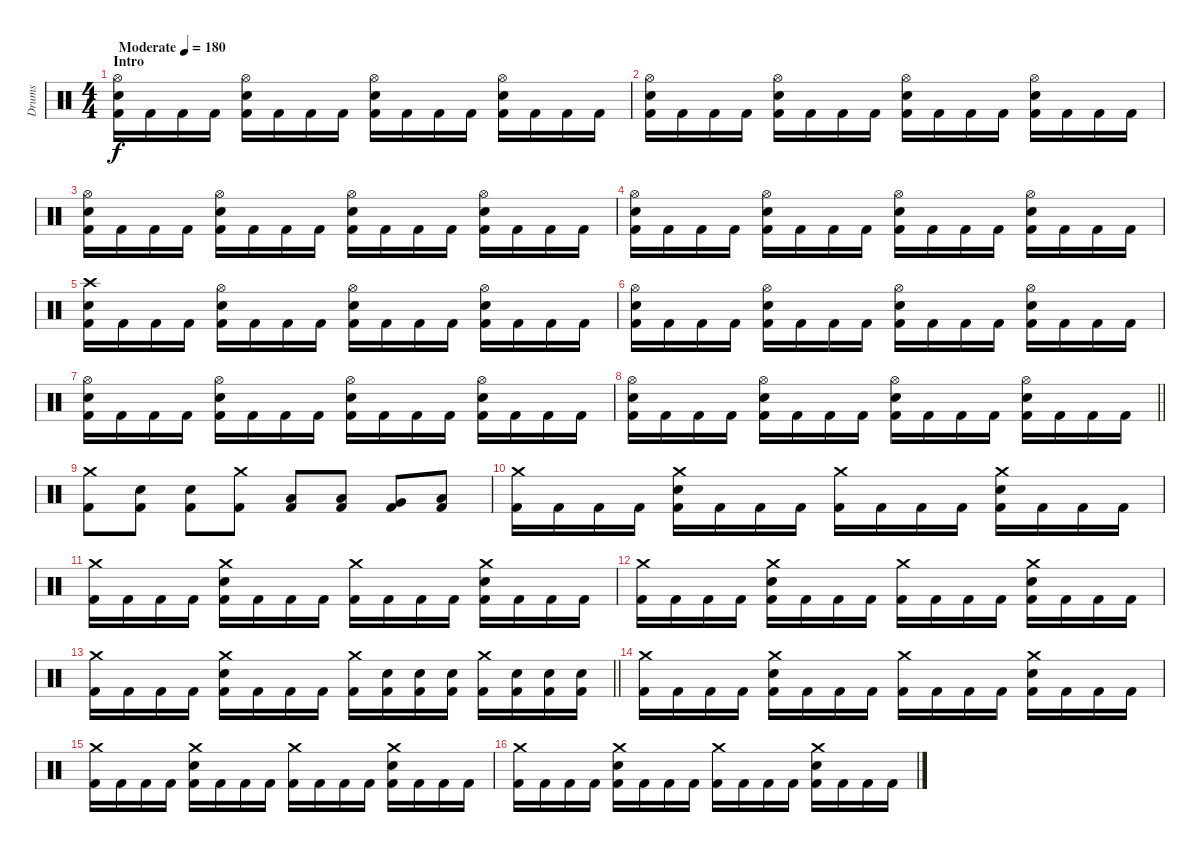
\track ("Drums" "Drums") {instrument percussion}
\staff {score}
\articulation defaults
\ts (4 4)
\section ("" "Intro")
\tempo (180 "Moderate")
\clef neutral
\ks c
("Hi-Hat (open)" "Snare (hit) 2" "Kick (hit) 2").16{dy f} "Kick (hit) 2".16 "Kick (hit) 2".16 "Kick (hit) 2".16 ("Hi-Hat (open)" "Snare (hit) 2" "Kick (hit) 2").16 "Kick (hit) 2".16 "Kick (hit) 2".16 "Kick (hit) 2".16 ("Hi-Hat (open)" "Snare (hit) 2" "Kick (hit) 2").16 "Kick (hit) 2".16 "Kick (hit) 2".16 "Kick (hit) 2".16 ("Hi-Hat (open)" "Snare (hit) 2" "Kick (hit) 2").16 "Kick (hit) 2".16 "Kick (hit) 2".16 "Kick (hit) 2".16 |
("Hi-Hat (open)" "Snare (hit) 2" "Kick (hit) 2").16 "Kick (hit) 2".16 "Kick (hit) 2".16 "Kick (hit) 2".16 ("Hi-Hat (open)" "Snare (hit) 2" "Kick (hit) 2").16 "Kick (hit) 2".16 "Kick (hit) 2".16 "Kick (hit) 2".16 ("Hi-Hat (open)" "Snare (hit) 2" "Kick (hit) 2").16 "Kick (hit) 2".16 "Kick (hit) 2".16 "Kick (hit) 2".16 ("Hi-Hat (open)" "Snare (hit) 2" "Kick (hit) 2").16 "Kick (hit) 2".16 "Kick (hit) 2".16 "Kick (hit) 2".16 |
("Hi-Hat (open)" "Snare (hit) 2" "Kick (hit) 2").16 "Kick (hit) 2".16 "Kick (hit) 2".16 "Kick (hit) 2".16 ("Hi-Hat (open)" "Snare (hit) 2" "Kick (hit) 2").16 "Kick (hit) 2".16 "Kick (hit) 2".16 "Kick (hit) 2".16 ("Hi-Hat (open)" "Snare (hit) 2" "Kick (hit) 2").16 "Kick (hit) 2".16 "Kick (hit) 2".16 "Kick (hit) 2".16 ("Hi-Hat (open)" "Snare (hit) 2" "Kick (hit) 2").16 "Kick (hit) 2".16 "Kick (hit) 2".16 "Kick (hit) 2".16 |
("Hi-Hat (open)" "Snare (hit) 2" "Kick (hit) 2").16 "Kick (hit) 2".16 "Kick (hit) 2".16 "Kick (hit) 2".16 ("Hi-Hat (open)" "Snare (hit) 2" "Kick (hit) 2").16 "Kick (hit) 2".16 "Kick (hit) 2".16 "Kick (hit) 2".16 ("Hi-Hat (open)" "Snare (hit) 2" "Kick (hit) 2").16 "Kick (hit) 2".16 "Kick (hit) 2".16 "Kick (hit) 2".16 ("Hi-Hat (open)" "Snare (hit) 2" "Kick (hit) 2").16 "Kick (hit) 2".16 "Kick (hit) 2".16 "Kick (hit) 2".16 |
("Crash high (hit)" "Snare (hit) 2" "Kick (hit) 2").16 "Kick (hit) 2".16 "Kick (hit) 2".16 "Kick (hit) 2".16 ("Hi-Hat (open)" "Snare (hit) 2" "Kick (hit) 2").16 "Kick (hit) 2".16 "Kick (hit) 2".16 "Kick (hit) 2".16 ("Hi-Hat (open)" "Snare (hit) 2" "Kick (hit) 2").16 "Kick (hit) 2".16 "Kick (hit) 2".16 "Kick (hit) 2".16 ("Hi-Hat (open)" "Snare (hit) 2" "Kick (hit) 2").16 "Kick (hit) 2".16 "Kick (hit) 2".16 "Kick (hit) 2".16 |
("Hi-Hat (open)" "Snare (hit) 2" "Kick (hit) 2").16 "Kick (hit) 2".16 "Kick (hit) 2".16 "Kick (hit) 2".16 ("Hi-Hat (open)" "Snare (hit) 2" "Kick (hit) 2").16 "Kick (hit) 2".16 "Kick (hit) 2".16 "Kick (hit) 2".16 ("Hi-Hat (open)" "Snare (hit) 2" "Kick (hit) 2").16 "Kick (hit) 2".16 "Kick (hit) 2".16 "Kick (hit) 2".16 ("Hi-Hat (open)" "Snare (hit) 2" "Kick (hit) 2").16 "Kick (hit) 2".16 "Kick (hit) 2".16 "Kick (hit) 2".16 |
("Hi-Hat (open)" "Snare (hit) 2" "Kick (hit) 2").16 "Kick (hit) 2".16 "Kick (hit) 2".16 "Kick (hit) 2".16 ("Hi-Hat (open)" "Snare (hit) 2" "Kick (hit) 2").16 "Kick (hit) 2".16 "Kick (hit) 2".16 "Kick (hit) 2".16 ("Hi-Hat (open)" "Snare (hit) 2" "Kick (hit) 2").16 "Kick (hit) 2".16 "Kick (hit) 2".16 "Kick (hit) 2".16 ("Hi-Hat (open)" "Snare (hit) 2" "Kick (hit) 2").16 "Kick (hit) 2".16 "Kick (hit) 2".16 "Kick (hit) 2".16 |
\barLineRight lightlight
("Hi-Hat (open)" "Snare (hit) 2" "Kick (hit) 2").16 "Kick (hit) 2".16 "Kick (hit) 2".16 "Kick (hit) 2".16 ("Hi-Hat (open)" "Snare (hit) 2" "Kick (hit) 2").16 "Kick (hit) 2".16 "Kick (hit) 2".16 "Kick (hit) 2".16 ("Hi-Hat (open)" "Snare (hit) 2" "Kick (hit) 2").16 "Kick (hit) 2".16 "Kick (hit) 2".16 "Kick (hit) 2".16 ("Hi-Hat (open)" "Snare (hit) 2" "Kick (hit) 2").16 "Kick (hit) 2".16 "Kick (hit) 2".16 "Kick (hit) 2".16 |
("Crash medium (hit)" "Kick (hit) 2").8 ("Snare (hit) 2" "Kick (hit) 2").8 ("Snare (hit) 2" "Kick (hit) 2").8 ("Crash medium (hit)" "Kick (hit) 2").8 ("Low Tom (hit)" "Kick (hit) 2").8 ("Low Tom (hit)" "Kick (hit) 2").8 ("Very Low Tom (hit)" "Kick (hit) 2").8 ("Low Floor Tom (hit)" "Kick (hit) 2").8 |
("Crash medium (hit)" "Kick (hit) 2").16 "Kick (hit) 2".16 "Kick (hit) 2".16 "Kick (hit) 2".16 ("Crash medium (hit)" "Snare (hit) 2" "Kick (hit) 2").16 "Kick (hit) 2".16 "Kick (hit) 2".16 "Kick (hit) 2".16 ("Crash medium (hit)" "Kick (hit) 2").16 "Kick (hit) 2".16 "Kick (hit) 2".16 "Kick (hit) 2".16 ("Crash medium (hit)" "Snare (hit) 2" "Kick (hit) 2").16 "Kick (hit) 2".16 "Kick (hit) 2".16 "Kick (hit) 2".16 |
("Crash medium (hit)" "Kick (hit) 2").16 "Kick (hit) 2".16 "Kick (hit) 2".16 "Kick (hit) 2".16 ("Crash medium (hit)" "Snare (hit) 2" "Kick (hit) 2").16 "Kick (hit) 2".16 "Kick (hit) 2".16 "Kick (hit) 2".16 ("Crash medium (hit)" "Kick (hit) 2").16 "Kick (hit) 2".16 "Kick (hit) 2".16 "Kick (hit) 2".16 ("Crash medium (hit)" "Snare (hit) 2" "Kick (hit) 2").16 "Kick (hit) 2".16 "Kick (hit) 2".16 "Kick (hit) 2".16 |
("Crash medium (hit)" "Kick (hit) 2").16 "Kick (hit) 2".16 "Kick (hit) 2".16 "Kick (hit) 2".16 ("Crash medium (hit)" "Snare (hit) 2" "Kick (hit) 2").16 "Kick (hit) 2".16 "Kick (hit) 2".16 "Kick (hit) 2".16 ("Crash medium (hit)" "Kick (hit) 2").16 "Kick (hit) 2".16 "Kick (hit) 2".16 "Kick (hit) 2".16 ("Crash medium (hit)" "Snare (hit) 2" "Kick (hit) 2").16 "Kick (hit) 2".16 "Kick (hit) 2".16 "Kick (hit) 2".16 |
\barLineRight lightlight
("Crash medium (hit)" "Kick (hit) 2").16 "Kick (hit) 2".16 "Kick (hit) 2".16 "Kick (hit) 2".16 ("Crash medium (hit)" "Snare (hit) 2" "Kick (hit) 2").16 "Kick (hit) 2".16 "Kick (hit) 2".16 "Kick (hit) 2".16 ("Crash medium (hit)" "Kick (hit) 2").16 ("Snare (hit) 2" "Kick (hit) 2").16 ("Snare (hit) 2" "Kick (hit) 2").16 ("Snare (hit) 2" "Kick (hit) 2").16 ("Crash medium (hit)" "Kick (hit) 2").16 ("Snare (hit) 2" "Kick (hit) 2").16 ("Snare (hit) 2" "Kick (hit) 2").16 ("Snare (hit) 2" "Kick (hit) 2").16 |
("Crash medium (hit)" "Kick (hit) 2").16 "Kick (hit) 2".16 "Kick (hit) 2".16 "Kick (hit) 2".16 ("Crash medium (hit)" "Snare (hit) 2" "Kick (hit) 2").16 "Kick (hit) 2".16 "Kick (hit) 2".16 "Kick (hit) 2".16 ("Crash medium (hit)" "Kick (hit) 2").16 "Kick (hit) 2".16 "Kick (hit) 2".16 "Kick (hit) 2".16 ("Crash medium (hit)" "Snare (hit) 2" "Kick (hit) 2").16 "Kick (hit) 2".16 "Kick (hit) 2".16 "Kick (hit) 2".16 |
("Crash medium (hit)" "Kick (hit) 2").16 "Kick (hit) 2".16 "Kick (hit) 2".16 "Kick (hit) 2".16 ("Crash medium (hit)" "Snare (hit) 2" "Kick (hit) 2").16 "Kick (hit) 2".16 "Kick (hit) 2".16 "Kick (hit) 2".16 ("Crash medium (hit)" "Kick (hit) 2").16 "Kick (hit) 2".16 "Kick (hit) 2".16 "Kick (hit) 2".16 ("Crash medium (hit)" "Snare (hit) 2" "Kick (hit) 2").16 "Kick (hit) 2".16 "Kick (hit) 2".16 "Kick (hit) 2".16 |
("Crash medium (hit)" "Kick (hit) 2").16 "Kick (hit) 2".16 "Kick (hit) 2".16 "Kick (hit) 2".16 ("Crash medium (hit)" "Snare (hit) 2" "Kick (hit) 2").16 "Kick (hit) 2".16 "Kick (hit) 2".16 "Kick (hit) 2".16 ("Crash medium (hit)" "Kick (hit) 2").16 "Kick (hit) 2".16 "Kick (hit) 2".16 "Kick (hit) 2".16 ("Crash medium (hit)" "Snare (hit) 2" "Kick (hit) 2").16 "Kick (hit) 2".16 "Kick (hit) 2".16 "Kick (hit) 2".16
